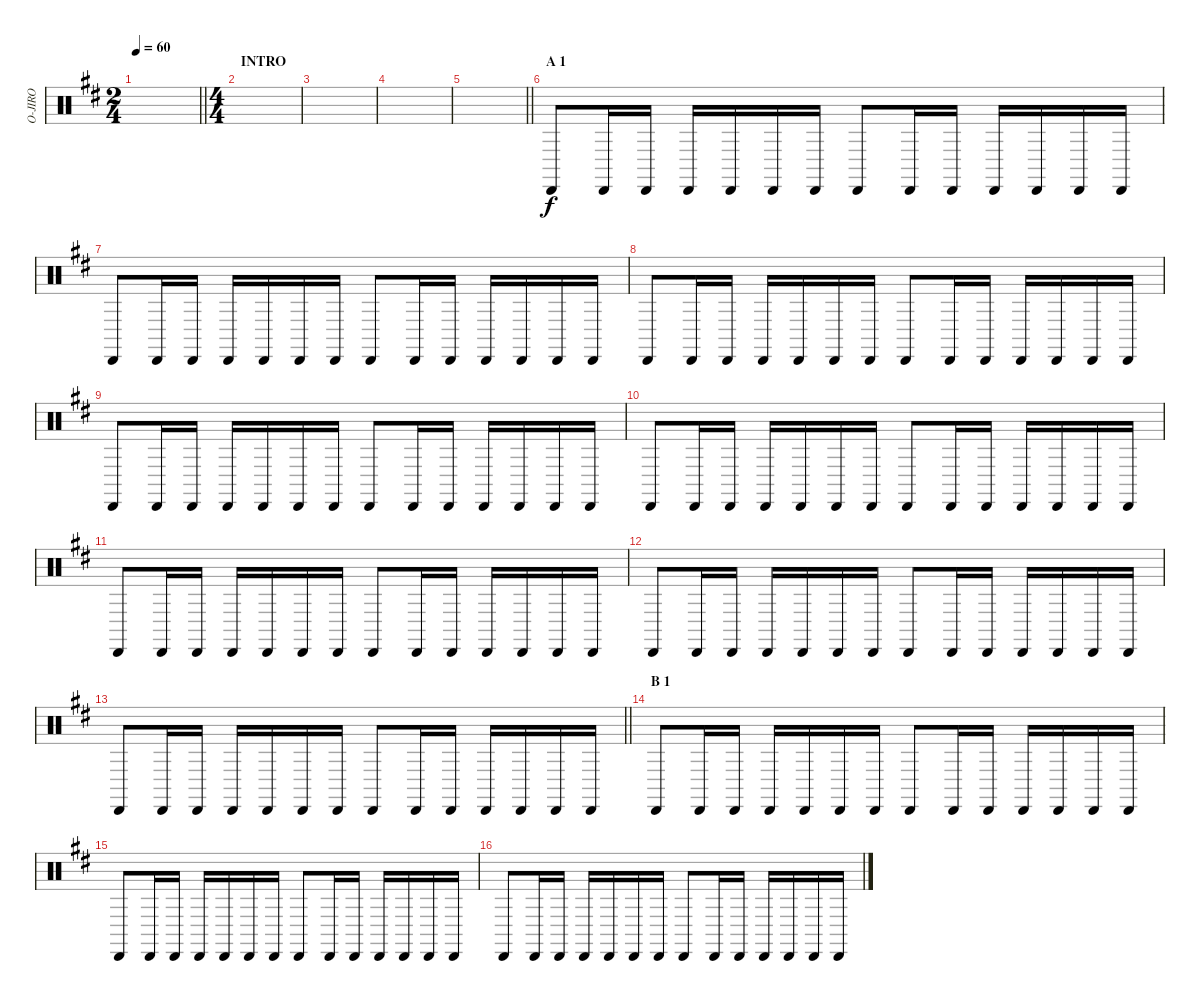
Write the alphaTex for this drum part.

\track ("O-JIRO" "O-JIRO") {instrument percussion}
\staff {score}
\articulation defaults
\ts (2 4)
\tempo 60
\clef neutral
\barLineRight lightlight
\ks d
|
\ts (4 4)
\section ("" "INTRO")
|
|
|
\barLineRight lightlight
|
\section ("" "A 1")
"Cabasa (hit)".8 "Cabasa (hit)".16 "Cabasa (hit)".16 "Cabasa (hit)".16 "Cabasa (hit)".16 "Cabasa (hit)".16 "Cabasa (hit)".16 "Cabasa (hit)".8 "Cabasa (hit)".16 "Cabasa (hit)".16 "Cabasa (hit)".16 "Cabasa (hit)".16 "Cabasa (hit)".16 "Cabasa (hit)".16 |
"Cabasa (hit)".8 "Cabasa (hit)".16 "Cabasa (hit)".16 "Cabasa (hit)".16 "Cabasa (hit)".16 "Cabasa (hit)".16 "Cabasa (hit)".16 "Cabasa (hit)".8 "Cabasa (hit)".16 "Cabasa (hit)".16 "Cabasa (hit)".16 "Cabasa (hit)".16 "Cabasa (hit)".16 "Cabasa (hit)".16 |
"Cabasa (hit)".8 "Cabasa (hit)".16 "Cabasa (hit)".16 "Cabasa (hit)".16 "Cabasa (hit)".16 "Cabasa (hit)".16 "Cabasa (hit)".16 "Cabasa (hit)".8 "Cabasa (hit)".16 "Cabasa (hit)".16 "Cabasa (hit)".16 "Cabasa (hit)".16 "Cabasa (hit)".16 "Cabasa (hit)".16 |
"Cabasa (hit)".8 "Cabasa (hit)".16 "Cabasa (hit)".16 "Cabasa (hit)".16 "Cabasa (hit)".16 "Cabasa (hit)".16 "Cabasa (hit)".16 "Cabasa (hit)".8 "Cabasa (hit)".16 "Cabasa (hit)".16 "Cabasa (hit)".16 "Cabasa (hit)".16 "Cabasa (hit)".16 "Cabasa (hit)".16 |
"Cabasa (hit)".8 "Cabasa (hit)".16 "Cabasa (hit)".16 "Cabasa (hit)".16 "Cabasa (hit)".16 "Cabasa (hit)".16 "Cabasa (hit)".16 "Cabasa (hit)".8 "Cabasa (hit)".16 "Cabasa (hit)".16 "Cabasa (hit)".16 "Cabasa (hit)".16 "Cabasa (hit)".16 "Cabasa (hit)".16 |
"Cabasa (hit)".8 "Cabasa (hit)".16 "Cabasa (hit)".16 "Cabasa (hit)".16 "Cabasa (hit)".16 "Cabasa (hit)".16 "Cabasa (hit)".16 "Cabasa (hit)".8 "Cabasa (hit)".16 "Cabasa (hit)".16 "Cabasa (hit)".16 "Cabasa (hit)".16 "Cabasa (hit)".16 "Cabasa (hit)".16 |
"Cabasa (hit)".8 "Cabasa (hit)".16 "Cabasa (hit)".16 "Cabasa (hit)".16 "Cabasa (hit)".16 "Cabasa (hit)".16 "Cabasa (hit)".16 "Cabasa (hit)".8 "Cabasa (hit)".16 "Cabasa (hit)".16 "Cabasa (hit)".16 "Cabasa (hit)".16 "Cabasa (hit)".16 "Cabasa (hit)".16 |
\barLineRight lightlight "Cabasa (hit)".8 "Cabasa (hit)".16 "Cabasa (hit)".16 "Cabasa (hit)".16 "Cabasa (hit)".16 "Cabasa (hit)".16 "Cabasa (hit)".16 "Cabasa (hit)".8 "Cabasa (hit)".16 "Cabasa (hit)".16 "Cabasa (hit)".16 "Cabasa (hit)".16 "Cabasa (hit)".16 "Cabasa (hit)".16
|
\section ("" "B 1")
"Cabasa (hit)".8 "Cabasa (hit)".16 "Cabasa (hit)".16 "Cabasa (hit)".16 "Cabasa (hit)".16 "Cabasa (hit)".16 "Cabasa (hit)".16 "Cabasa (hit)".8 "Cabasa (hit)".16 "Cabasa (hit)".16 "Cabasa (hit)".16 "Cabasa (hit)".16 "Cabasa (hit)".16 "Cabasa (hit)".16 |
"Cabasa (hit)".8 "Cabasa (hit)".16 "Cabasa (hit)".16 "Cabasa (hit)".16 "Cabasa (hit)".16 "Cabasa (hit)".16 "Cabasa (hit)".16 "Cabasa (hit)".8 "Cabasa (hit)".16 "Cabasa (hit)".16 "Cabasa (hit)".16 "Cabasa (hit)".16 "Cabasa (hit)".16 "Cabasa (hit)".16 |
"Cabasa (hit)".8 "Cabasa (hit)".16 "Cabasa (hit)".16 "Cabasa (hit)".16 "Cabasa (hit)".16 "Cabasa (hit)".16 "Cabasa (hit)".16 "Cabasa (hit)".8 "Cabasa (hit)".16 "Cabasa (hit)".16 "Cabasa (hit)".16 "Cabasa (hit)".16 "Cabasa (hit)".16 "Cabasa (hit)".16
